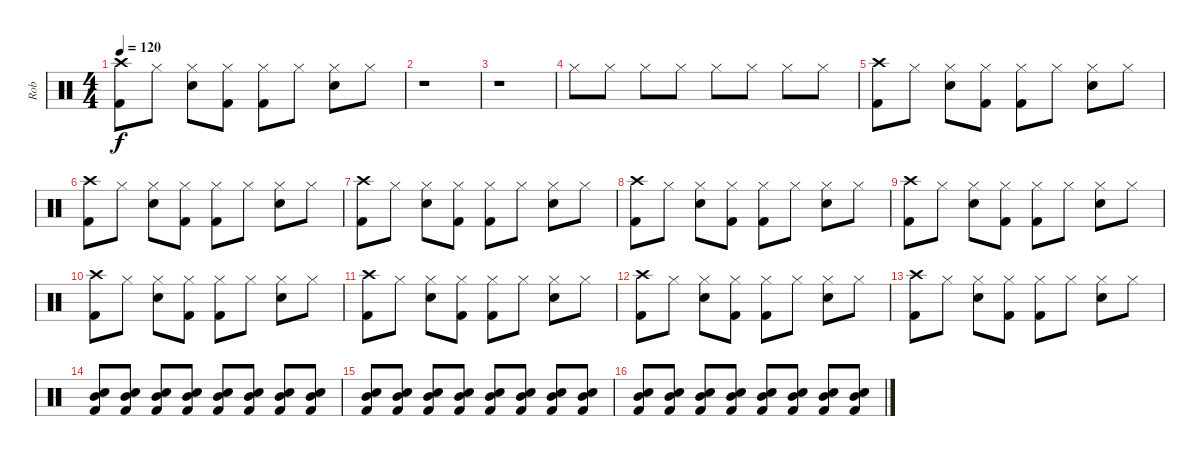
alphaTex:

\track ("Rob" "Rob") {instrument percussion}
\staff {score}
\articulation defaults
\ts (4 4)
\tempo 120
\clef neutral
\ks c
("Crash high (hit)" "Kick (hit) 2").8{dy f} "Hi-Hat (closed)".8 ("Hi-Hat (closed)" "Snare (hit) 2").8 ("Hi-Hat (closed)" "Kick (hit) 2").8 ("Hi-Hat (closed)" "Kick (hit) 2").8 "Hi-Hat (closed)".8 ("Hi-Hat (closed)" "Snare (hit) 2").8 "Hi-Hat (closed)".8 |
r.1 |
r.1 |
"Hi-Hat (closed)".8 "Hi-Hat (closed)".8 "Hi-Hat (closed)".8 "Hi-Hat (closed)".8 "Hi-Hat (closed)".8 "Hi-Hat (closed)".8 "Hi-Hat (closed)".8 "Hi-Hat (closed)".8 |
("Crash high (hit)" "Kick (hit) 2").8 "Hi-Hat (closed)".8 ("Hi-Hat (closed)" "Snare (hit) 2").8 ("Hi-Hat (closed)" "Kick (hit) 2").8 ("Hi-Hat (closed)" "Kick (hit) 2").8 "Hi-Hat (closed)".8 ("Hi-Hat (closed)" "Snare (hit) 2").8 "Hi-Hat (closed)".8 |
("Crash high (hit)" "Kick (hit) 2").8 "Hi-Hat (closed)".8 ("Hi-Hat (closed)" "Snare (hit) 2").8 ("Hi-Hat (closed)" "Kick (hit) 2").8 ("Hi-Hat (closed)" "Kick (hit) 2").8 "Hi-Hat (closed)".8 ("Hi-Hat (closed)" "Snare (hit) 2").8 "Hi-Hat (closed)".8 |
("Crash high (hit)" "Kick (hit) 2").8 "Hi-Hat (closed)".8 ("Hi-Hat (closed)" "Snare (hit) 2").8 ("Hi-Hat (closed)" "Kick (hit) 2").8 ("Hi-Hat (closed)" "Kick (hit) 2").8 "Hi-Hat (closed)".8 ("Hi-Hat (closed)" "Snare (hit) 2").8 "Hi-Hat (closed)".8 |
("Crash high (hit)" "Kick (hit) 2").8 "Hi-Hat (closed)".8 ("Hi-Hat (closed)" "Snare (hit) 2").8 ("Hi-Hat (closed)" "Kick (hit) 2").8 ("Hi-Hat (closed)" "Kick (hit) 2").8 "Hi-Hat (closed)".8 ("Hi-Hat (closed)" "Snare (hit) 2").8 "Hi-Hat (closed)".8 |
("Crash high (hit)" "Kick (hit) 2").8 "Hi-Hat (closed)".8 ("Hi-Hat (closed)" "Snare (hit) 2").8 ("Hi-Hat (closed)" "Kick (hit) 2").8 ("Hi-Hat (closed)" "Kick (hit) 2").8 "Hi-Hat (closed)".8 ("Hi-Hat (closed)" "Snare (hit) 2").8 "Hi-Hat (closed)".8 |
("Crash high (hit)" "Kick (hit) 2").8 "Hi-Hat (closed)".8 ("Hi-Hat (closed)" "Snare (hit) 2").8 ("Hi-Hat (closed)" "Kick (hit) 2").8 ("Hi-Hat (closed)" "Kick (hit) 2").8 "Hi-Hat (closed)".8 ("Hi-Hat (closed)" "Snare (hit) 2").8 "Hi-Hat (closed)".8 |
("Crash high (hit)" "Kick (hit) 2").8 "Hi-Hat (closed)".8 ("Hi-Hat (closed)" "Snare (hit) 2").8 ("Hi-Hat (closed)" "Kick (hit) 2").8 ("Hi-Hat (closed)" "Kick (hit) 2").8 "Hi-Hat (closed)".8 ("Hi-Hat (closed)" "Snare (hit) 2").8 "Hi-Hat (closed)".8 |
("Crash high (hit)" "Kick (hit) 2").8 "Hi-Hat (closed)".8 ("Hi-Hat (closed)" "Snare (hit) 2").8 ("Hi-Hat (closed)" "Kick (hit) 2").8 ("Hi-Hat (closed)" "Kick (hit) 2").8 "Hi-Hat (closed)".8 ("Hi-Hat (closed)" "Snare (hit) 2").8 "Hi-Hat (closed)".8 |
("Crash high (hit)" "Kick (hit) 2").8 "Hi-Hat (closed)".8 ("Hi-Hat (closed)" "Snare (hit) 2").8 ("Hi-Hat (closed)" "Kick (hit) 2").8 ("Hi-Hat (closed)" "Kick (hit) 2").8 "Hi-Hat (closed)".8 ("Hi-Hat (closed)" "Snare (hit) 2").8 "Hi-Hat (closed)".8 |
("Snare (hit) 2" "Kick (hit) 2" "Mid Tom (hit)").8 ("Snare (hit) 2" "Kick (hit) 2" "Mid Tom (hit)").8 ("Snare (hit) 2" "Kick (hit) 2" "Mid Tom (hit)").8 ("Snare (hit) 2" "Kick (hit) 2" "Mid Tom (hit)").8 ("Snare (hit) 2" "Kick (hit) 2" "Mid Tom (hit)").8 ("Snare (hit) 2" "Kick (hit) 2" "Mid Tom (hit)").8 ("Snare (hit) 2" "Kick (hit) 2" "Mid Tom (hit)").8 ("Snare (hit) 2" "Kick (hit) 2" "Mid Tom (hit)").8 |
("Snare (hit) 2" "Kick (hit) 2" "Mid Tom (hit)").8 ("Snare (hit) 2" "Kick (hit) 2" "Mid Tom (hit)").8 ("Snare (hit) 2" "Kick (hit) 2" "Mid Tom (hit)").8 ("Snare (hit) 2" "Kick (hit) 2" "Mid Tom (hit)").8 ("Snare (hit) 2" "Kick (hit) 2" "Mid Tom (hit)").8 ("Snare (hit) 2" "Kick (hit) 2" "Mid Tom (hit)").8 ("Snare (hit) 2" "Kick (hit) 2" "Mid Tom (hit)").8 ("Snare (hit) 2" "Kick (hit) 2" "Mid Tom (hit)").8 |
("Snare (hit) 2" "Kick (hit) 2" "Mid Tom (hit)").8 ("Snare (hit) 2" "Kick (hit) 2" "Mid Tom (hit)").8 ("Snare (hit) 2" "Kick (hit) 2" "Mid Tom (hit)").8 ("Snare (hit) 2" "Kick (hit) 2" "Mid Tom (hit)").8 ("Snare (hit) 2" "Kick (hit) 2" "Mid Tom (hit)").8 ("Snare (hit) 2" "Kick (hit) 2" "Mid Tom (hit)").8 ("Snare (hit) 2" "Kick (hit) 2" "Mid Tom (hit)").8 ("Snare (hit) 2" "Kick (hit) 2" "Mid Tom (hit)").8
